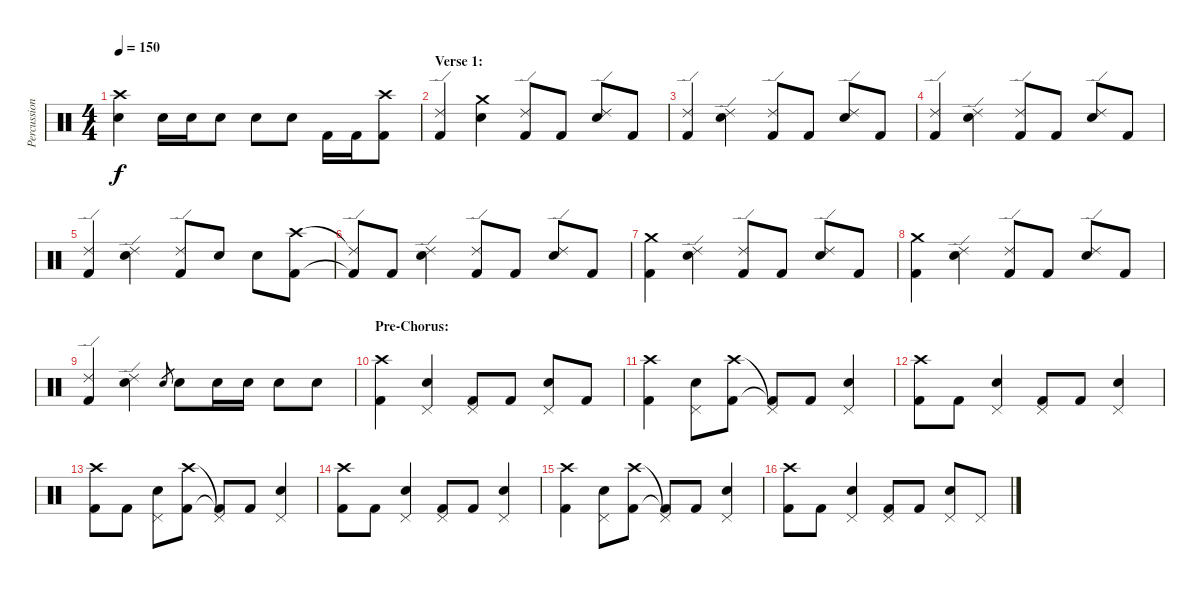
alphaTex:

\track ("Percussion" "Percussion") {instrument percussion}
\staff {score}
\articulation defaults
\ts (4 4)
\tempo 150
\clef neutral
\ks c
("Crash high (hit)" "Snare (hit) 2").4{dy f} "Snare (hit) 2".16 "Snare (hit) 2".16 "Snare (hit) 2".8 "Snare (hit) 2".8 "Snare (hit) 2".8 "Kick (hit) 2".16 "Kick (hit) 2".16 ("Crash high (hit)" "Kick (hit) 2").8 |
\section ("" "Verse 1:")
("Ride (edge) 2" "Kick (hit) 2").4 ("Crash medium (hit)" "Snare (hit) 2").4 ("Ride (edge) 2" "Kick (hit) 2").8 "Kick (hit) 2".8 ("Ride (edge) 2" "Snare (hit) 2").8 "Kick (hit) 2".8 |
("Ride (edge) 2" "Kick (hit) 2").4 ("Ride (edge) 2" "Snare (hit) 2").4 ("Ride (edge) 2" "Kick (hit) 2").8 "Kick (hit) 2".8 ("Ride (edge) 2" "Snare (hit) 2").8 "Kick (hit) 2".8 |
("Ride (edge) 2" "Kick (hit) 2").4 ("Ride (edge) 2" "Snare (hit) 2").4 ("Ride (edge) 2" "Kick (hit) 2").8 "Kick (hit) 2".8 ("Ride (edge) 2" "Snare (hit) 2").8 "Kick (hit) 2".8 |
("Ride (edge) 2" "Kick (hit) 2").4 ("Ride (edge) 2" "Snare (hit) 2").4 ("Ride (edge) 2" "Kick (hit) 2").8 "Snare (hit) 2".8 "Snare (hit) 2".8 ("Crash high (hit)" "Kick (hit) 2").8 |
("Ride (edge) 2"{t} "Kick (hit) 2"{t}).8 "Kick (hit) 2".8 ("Ride (edge) 2" "Snare (hit) 2").4 ("Ride (edge) 2" "Kick (hit) 2").8 "Kick (hit) 2".8 ("Ride (edge) 2" "Snare (hit) 2").8 "Kick (hit) 2".8 |
("Crash medium (hit)" "Kick (hit) 2").4 ("Ride (edge) 2" "Snare (hit) 2").4 ("Ride (edge) 2" "Kick (hit) 2").8 "Kick (hit) 2".8 ("Ride (edge) 2" "Snare (hit) 2").8 "Kick (hit) 2".8 |
("Crash medium (hit)" "Kick (hit) 2").4 ("Ride (edge) 2" "Snare (hit) 2").4 ("Ride (edge) 2" "Kick (hit) 2").8 "Kick (hit) 2".8 ("Ride (edge) 2" "Snare (hit) 2").8 "Kick (hit) 2".8 |
("Ride (edge) 2" "Kick (hit) 2").4 ("Ride (edge) 2" "Snare (hit) 2").4 "Snare (hit) 2".8{gr} "Snare (hit) 2".8 "Snare (hit) 2".16 "Snare (hit) 2".16 "Snare (hit) 2".8 "Snare (hit) 2".8 |
\section ("" "Pre-Chorus:")
("Crash high (hit)" "Kick (hit) 2").4 ("Pedal Hi-Hat (hit)" "Snare (hit) 2").4 ("Pedal Hi-Hat (hit)" "Kick (hit) 2").8 "Kick (hit) 2".8 ("Pedal Hi-Hat (hit)" "Snare (hit) 2").8 "Kick (hit) 2".8 |
("Crash high (hit)" "Kick (hit) 2").4 ("Pedal Hi-Hat (hit)" "Snare (hit) 2").8 ("Crash high (hit)" "Kick (hit) 2").8 ("Pedal Hi-Hat (hit)"{t} "Kick (hit) 2"{t}).8 "Kick (hit) 2".8 ("Pedal Hi-Hat (hit)" "Snare (hit) 2").4 |
("Crash high (hit)" "Kick (hit) 2").8 "Kick (hit) 2".8 ("Pedal Hi-Hat (hit)" "Snare (hit) 2").4 ("Pedal Hi-Hat (hit)" "Kick (hit) 2").8 "Kick (hit) 2".8 ("Pedal Hi-Hat (hit)" "Snare (hit) 2").4 |
("Crash high (hit)" "Kick (hit) 2").8 "Kick (hit) 2".8 ("Pedal Hi-Hat (hit)" "Snare (hit) 2").8 ("Crash high (hit)" "Kick (hit) 2").8 ("Pedal Hi-Hat (hit)"{t} "Kick (hit) 2"{t}).8 "Kick (hit) 2".8 ("Pedal Hi-Hat (hit)" "Snare (hit) 2").4 |
("Crash high (hit)" "Kick (hit) 2").8 "Kick (hit) 2".8 ("Pedal Hi-Hat (hit)" "Snare (hit) 2").4 ("Pedal Hi-Hat (hit)" "Kick (hit) 2").8 "Kick (hit) 2".8 ("Pedal Hi-Hat (hit)" "Snare (hit) 2").4 |
("Crash high (hit)" "Kick (hit) 2").4 ("Pedal Hi-Hat (hit)" "Snare (hit) 2").8 ("Crash high (hit)" "Kick (hit) 2").8 ("Pedal Hi-Hat (hit)"{t} "Kick (hit) 2"{t}).8 "Kick (hit) 2".8 ("Pedal Hi-Hat (hit)" "Snare (hit) 2").4 |
("Crash high (hit)" "Kick (hit) 2").8 "Kick (hit) 2".8 ("Pedal Hi-Hat (hit)" "Snare (hit) 2").4 ("Pedal Hi-Hat (hit)" "Kick (hit) 2").8 "Kick (hit) 2".8 ("Pedal Hi-Hat (hit)" "Snare (hit) 2").8 "Pedal Hi-Hat (hit)".8
